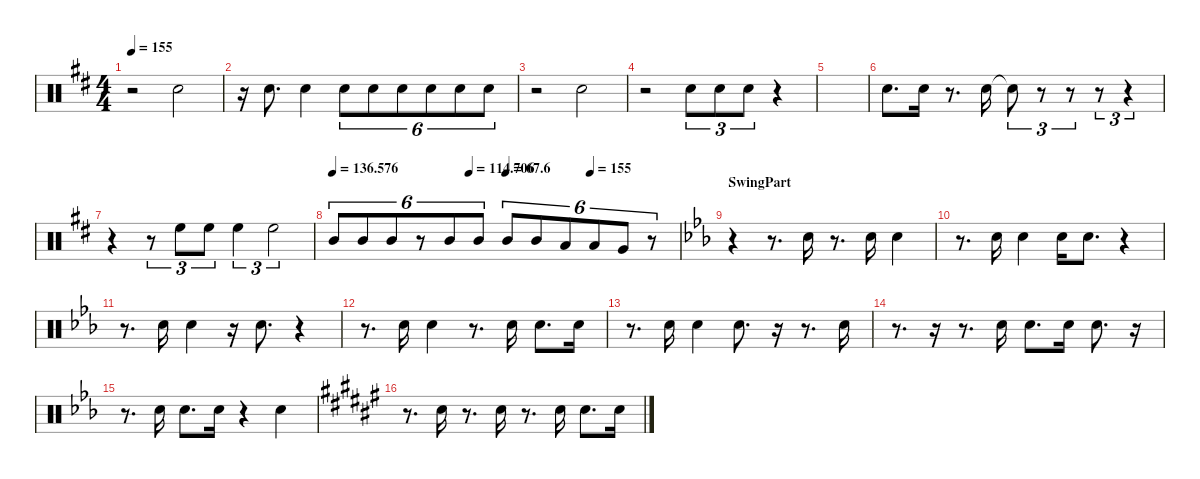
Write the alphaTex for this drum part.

\hideDynamics
\bracketExtendMode nobrackets
\singleTrackTrackNamePolicy hidden
\multiTrackTrackNamePolicy hidden
\otherSystemsTrackNameOrientation horizontal
\track ("Drums" "Drums") {instrument percussion}
\staff {score}
\articulation defaults
\ts (4 4)
\tempo 155
\clef neutral
\ks d
r.2{dy mp beam Down} "Snare (hit) 2"{acc forcenatural}.2{beam Down} |
r.16{beam Down} "Snare (hit) 2"{acc forcenatural}.8{d beam Down} "Snare (hit) 2"{acc forcenatural}.4{beam Down} "Snare (hit) 2"{acc forcenatural}.8{tu (6 4) beam Down} "Snare (hit) 2"{acc forcenatural}.8{tu (6 4) beam Down} "Snare (hit) 2"{acc forcenatural}.8{tu (6 4) beam Down} "Snare (hit) 2"{acc forcenatural}.8{tu (6 4) beam Down} "Snare (hit) 2"{acc forcenatural}.8{tu (6 4) beam Down} "Snare (hit) 2"{acc forcenatural}.8{tu (6 4) beam Down} |
r.2{beam Down} "Snare (hit) 2"{acc forcenatural}.2{beam Down} |
r.2{beam Down} "Snare (hit) 2"{acc forcenatural}.8{tu (3 2) beam Down} "Snare (hit) 2"{acc forcenatural}.8{tu (3 2) beam Down} "Snare (hit) 2"{acc forcenatural}.8{tu (3 2) beam Down} r.4{beam Down} |
|
"Snare (hit) 2"{acc forcenatural}.8{d dy mf beam Down} "Snare (hit) 2"{acc forcenatural}.16{dy mp beam Down} r.8{d beam Down} "Snare (hit) 2"{acc forcenatural}.16{beam Down} "Snare (hit) 2"{t acc forcenatural}.8{tu (3 2) beam Down} r.8{tu (3 2) beam Down} r.8{tu (3 2) beam Down} r.8{tu (3 2) beam Down} r.4{tu (3 2) beam Down} |
r.4{beam Down} r.8{tu (3 2) beam Down} "High Floor Tom (hit)"{acc forcenatural}.8{tu (3 2) beam Down} "High Floor Tom (hit)"{acc forcenatural}.8{tu (3 2) beam Down} "High Floor Tom (hit)"{acc forcenatural}.4{tu (3 2) beam Down} "High Floor Tom (hit)"{acc forcenatural}.2{tu (3 2) beam Down} |
\tempo
136.576
\tempo (114.706 0.39375)
\tempo (67.6 0.5)
\tempo (155 0.74375)
"Mid Tom (hit)"{acc forcenatural}.8{tu (6 4) dy p beam Up} "Mid Tom (hit)"{acc forcenatural}.8{tu (6 4) beam Up} "Mid Tom (hit)"{acc forcenatural}.8{tu (6 4) beam Up} r.8{tu (6 4) beam Up} "Mid Tom (hit)"{acc forcenatural}.8{tu (6 4) beam Up} "Mid Tom (hit)"{acc forcenatural}.8{tu (6 4) beam Up} "Mid Tom (hit)"{acc forcenatural}.8{tu (6 4) beam Up} "Mid Tom (hit)"{acc forcenatural}.8{tu (6 4) beam Up} "Low Tom (hit)"{acc forcenatural}.8{tu (6 4) dy mp beam Up} "Low Tom (hit)"{acc forcenatural}.8{tu (6 4) beam Up} "Very Low Tom (hit)"{acc forcenatural}.8{tu (6 4) beam Up} r.8{tu (6 4) beam Up} |
\section ("" "SwingPart")
\ks eb
r.4{beam Down} r.8{d beam Down} "Snare (hit) 2"{acc forcenatural}.16{dy p beam Down} r.8{d beam Down} "Snare (hit) 2"{acc forcenatural}.16{beam Down} "Snare (hit) 2"{acc forcenatural}.4{beam Down} |
r.8{d beam Down} "Snare (hit) 2"{acc forcenatural}.16{beam Down} "Snare (hit) 2"{acc forcenatural}.4{dy mp beam Down} "Snare (hit) 2"{acc forcenatural}.16{dy pp beam Down} "Snare (hit) 2"{acc forcenatural}.8{d dy p beam Down} r.4{beam Down} |
r.8{d beam Down} "Snare (hit) 2"{acc forcenatural}.16{beam Down} "Snare (hit) 2"{acc forcenatural}.4{dy mp beam Down} r.16{beam Down} "Snare (hit) 2"{acc forcenatural}.8{d dy p beam Down} r.4{beam Down} |
r.8{d beam Down} "Snare (hit) 2"{acc forcenatural}.16{beam Down} "Snare (hit) 2"{acc forcenatural}.4{beam Down} r.8{d beam Down} "Snare (hit) 2"{acc forcenatural}.16{beam Down} "Snare (hit) 2"{acc forcenatural}.8{d beam Down} "Snare (hit) 2"{acc forcenatural}.16{beam Down} |
r.8{d beam Down} "Snare (hit) 2"{acc forcenatural}.16{beam Down} "Snare (hit) 2"{acc forcenatural}.4{beam Down} "Snare (hit) 2"{acc forcenatural}.8{d beam Down} r.16{beam Down} r.8{d beam Down} "Snare (hit) 2"{acc forcenatural}.16{beam Down} |
r.8{d beam Down} r.16{beam Down} r.8{d beam Down} "Snare (hit) 2"{acc forcenatural}.16{beam Down} "Snare (hit) 2"{acc forcenatural}.8{d dy mp beam Down} "Snare (hit) 2"{acc forcenatural}.16{dy p beam Down} "Snare (hit) 2"{acc forcenatural}.8{d beam Down} r.16{beam Down} |
r.8{d beam Down} "Snare (hit) 2"{acc forcenatural}.16{beam Down} "Snare (hit) 2"{acc forcenatural}.8{d dy mp beam Down} "Snare (hit) 2"{acc forcenatural}.16{beam Down} r.4{beam Down} "Snare (hit) 2"{acc forcenatural}.4{beam Down} |
\ks f#
r.8{d beam Down} "Snare (hit) 2"{acc forcenatural}.16{beam Down} r.8{d beam Down} "Snare (hit) 2"{acc forcenatural}.16{beam Down} r.8{d beam Down} "Snare (hit) 2"{acc forcenatural}.16{beam Down} "Snare (hit) 2"{acc forcenatural}.8{d dy p beam Down} "Snare (hit) 2"{acc forcenatural}.16{beam Down}
